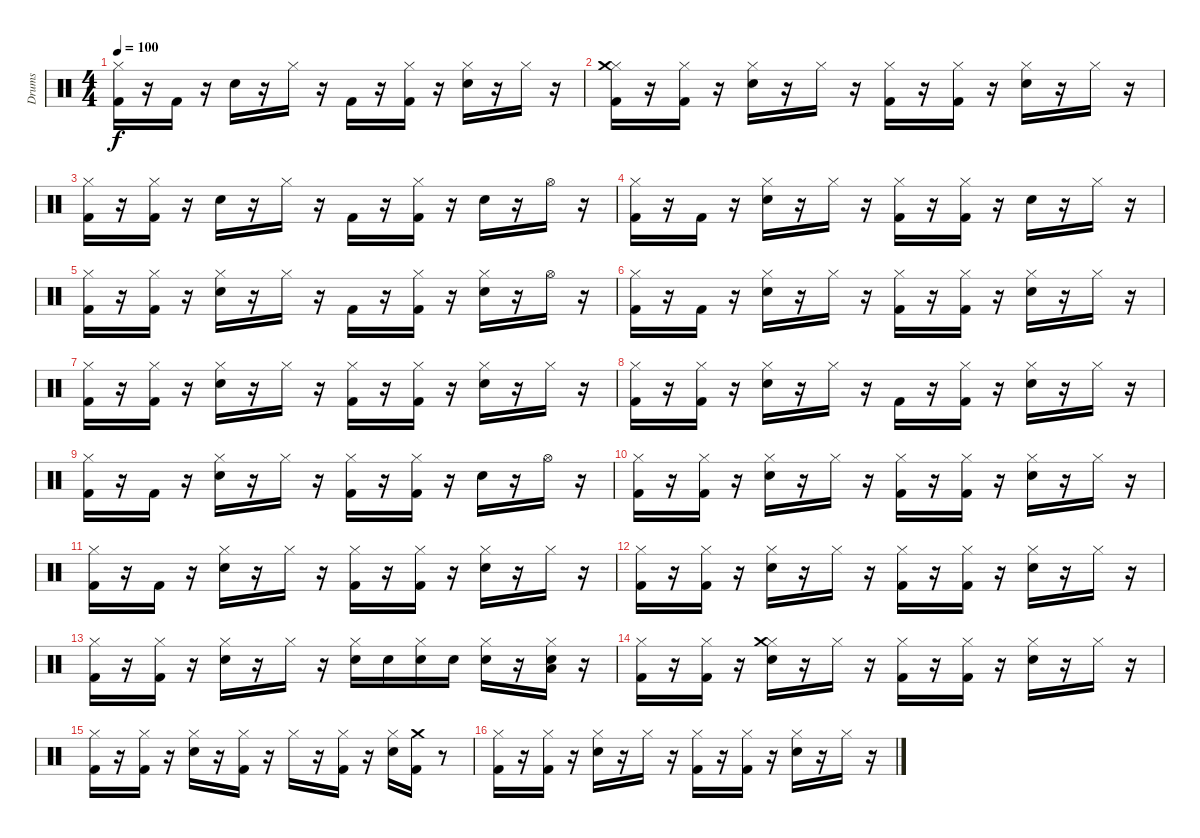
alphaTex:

\bracketExtendMode groupsimilarinstruments
\otherSystemsTrackNameOrientation horizontal
\track ("Drumkit" "Drums") {instrument percussion}
\staff {score}
\articulation defaults
\ts (4 4)
\tempo 100
\clef neutral
\ks c
("Kick (hit) 2" "Hi-Hat (closed)").16{dy f beam Down} r.16{beam Down} "Kick (hit) 2".16{beam Down} r.16{beam Down} "Snare (hit) 2".16{beam Down} r.16{beam Down} "Hi-Hat (closed)".16{beam Down} r.16{beam Down} "Kick (hit) 2".16{beam Down} r.16{beam Down} ("Kick (hit) 2" "Hi-Hat (closed)").16{beam Down} r.16{beam Down} ("Snare (hit) 2" "Hi-Hat (closed)").16{beam Down} r.16{beam Down} "Hi-Hat (closed)".16{beam Down} r.16{beam Down} |
("Kick (hit) 2" "Hi-Hat (closed)" "Crash medium (hit)").16{beam Down} r.16{beam Down} ("Kick (hit) 2" "Hi-Hat (closed)").16{beam Down} r.16{beam Down} ("Snare (hit) 2" "Hi-Hat (closed)").16{beam Down} r.16{beam Down} "Hi-Hat (closed)".16{beam Down} r.16{beam Down} ("Kick (hit) 2" "Hi-Hat (closed)").16{beam Down} r.16{beam Down} ("Kick (hit) 2" "Hi-Hat (closed)").16{beam Down} r.16{beam Down} ("Snare (hit) 2" "Hi-Hat (closed)").16{beam Down} r.16{beam Down} "Hi-Hat (closed)".16{beam Down} r.16{beam Down} |
("Kick (hit) 2" "Hi-Hat (closed)").16{beam Down} r.16{beam Down} ("Kick (hit) 2" "Hi-Hat (closed)").16{beam Down} r.16{beam Down} "Snare (hit) 2".16{beam Down} r.16{beam Down} "Hi-Hat (closed)".16{beam Down} r.16{beam Down} "Kick (hit) 2".16{beam Down} r.16{beam Down} ("Kick (hit) 2" "Hi-Hat (closed)").16{beam Down} r.16{beam Down} "Snare (hit) 2".16{beam Down} r.16{beam Down} "Hi-Hat (open)".16{beam Down} r.16{beam Down} |
("Kick (hit) 2" "Hi-Hat (closed)").16{beam Down} r.16{beam Down} "Kick (hit) 2".16{beam Down} r.16{beam Down} ("Snare (hit) 2" "Hi-Hat (closed)").16{beam Down} r.16{beam Down} "Hi-Hat (closed)".16{beam Down} r.16{beam Down} ("Kick (hit) 2" "Hi-Hat (closed)").16{beam Down} r.16{beam Down} ("Kick (hit) 2" "Hi-Hat (closed)").16{beam Down} r.16{beam Down} "Snare (hit) 2".16{beam Down} r.16{beam Down} "Hi-Hat (closed)".16{beam Down} r.16{beam Down} |
("Kick (hit) 2" "Hi-Hat (closed)").16{beam Down} r.16{beam Down} ("Kick (hit) 2" "Hi-Hat (closed)").16{beam Down} r.16{beam Down} ("Snare (hit) 2" "Hi-Hat (closed)").16{beam Down} r.16{beam Down} "Hi-Hat (closed)".16{beam Down} r.16{beam Down} "Kick (hit) 2".16{beam Down} r.16{beam Down} ("Kick (hit) 2" "Hi-Hat (closed)").16{beam Down} r.16{beam Down} ("Snare (hit) 2" "Hi-Hat (closed)").16{beam Down} r.16{beam Down} "Hi-Hat (open)".16{beam Down} r.16{beam Down} |
("Kick (hit) 2" "Hi-Hat (closed)").16{beam Down} r.16{beam Down} "Kick (hit) 2".16{beam Down} r.16{beam Down} ("Snare (hit) 2" "Hi-Hat (closed)").16{beam Down} r.16{beam Down} "Hi-Hat (closed)".16{beam Down} r.16{beam Down} ("Kick (hit) 2" "Hi-Hat (closed)").16{beam Down} r.16{beam Down} ("Kick (hit) 2" "Hi-Hat (closed)").16{beam Down} r.16{beam Down} ("Snare (hit) 2" "Hi-Hat (closed)").16{beam Down} r.16{beam Down} "Hi-Hat (closed)".16{beam Down} r.16{beam Down} |
("Kick (hit) 2" "Hi-Hat (closed)").16{beam Down} r.16{beam Down} ("Kick (hit) 2" "Hi-Hat (closed)").16{beam Down} r.16{beam Down} ("Snare (hit) 2" "Hi-Hat (closed)").16{beam Down} r.16{beam Down} "Hi-Hat (closed)".16{beam Down} r.16{beam Down} ("Kick (hit) 2" "Hi-Hat (closed)").16{beam Down} r.16{beam Down} ("Kick (hit) 2" "Hi-Hat (closed)").16{beam Down} r.16{beam Down} ("Snare (hit) 2" "Hi-Hat (closed)").16{beam Down} r.16{beam Down} "Hi-Hat (closed)".16{beam Down} r.16{beam Down} |
("Kick (hit) 2" "Hi-Hat (closed)").16{beam Down} r.16{beam Down} ("Kick (hit) 2" "Hi-Hat (closed)").16{beam Down} r.16{beam Down} ("Snare (hit) 2" "Hi-Hat (closed)").16{beam Down} r.16{beam Down} "Hi-Hat (closed)".16{beam Down} r.16{beam Down} "Kick (hit) 2".16{beam Down} r.16{beam Down} ("Kick (hit) 2" "Hi-Hat (closed)").16{beam Down} r.16{beam Down} ("Snare (hit) 2" "Hi-Hat (closed)").16{beam Down} r.16{beam Down} "Hi-Hat (closed)".16{beam Down} r.16{beam Down} |
("Kick (hit) 2" "Hi-Hat (closed)").16{beam Down} r.16{beam Down} "Kick (hit) 2".16{beam Down} r.16{beam Down} ("Snare (hit) 2" "Hi-Hat (closed)").16{beam Down} r.16{beam Down} "Hi-Hat (closed)".16{beam Down} r.16{beam Down} ("Kick (hit) 2" "Hi-Hat (closed)").16{beam Down} r.16{beam Down} ("Kick (hit) 2" "Hi-Hat (closed)").16{beam Down} r.16{beam Down} "Snare (hit) 2".16{beam Down} r.16{beam Down} "Hi-Hat (open)".16{beam Down} r.16{beam Down} |
("Kick (hit) 2" "Hi-Hat (closed)").16{beam Down} r.16{beam Down} ("Kick (hit) 2" "Hi-Hat (closed)").16{beam Down} r.16{beam Down} ("Snare (hit) 2" "Hi-Hat (closed)").16{beam Down} r.16{beam Down} "Hi-Hat (closed)".16{beam Down} r.16{beam Down} ("Kick (hit) 2" "Hi-Hat (closed)").16{beam Down} r.16{beam Down} ("Kick (hit) 2" "Hi-Hat (closed)").16{beam Down} r.16{beam Down} ("Snare (hit) 2" "Hi-Hat (closed)").16{beam Down} r.16{beam Down} "Hi-Hat (closed)".16{beam Down} r.16{beam Down} |
("Kick (hit) 2" "Hi-Hat (closed)").16{beam Down} r.16{beam Down} "Kick (hit) 2".16{beam Down} r.16{beam Down} ("Snare (hit) 2" "Hi-Hat (closed)").16{beam Down} r.16{beam Down} "Hi-Hat (closed)".16{beam Down} r.16{beam Down} ("Kick (hit) 2" "Hi-Hat (closed)").16{beam Down} r.16{beam Down} ("Kick (hit) 2" "Hi-Hat (closed)").16{beam Down} r.16{beam Down} ("Snare (hit) 2" "Hi-Hat (closed)").16{beam Down} r.16{beam Down} "Hi-Hat (closed)".16{beam Down} r.16{beam Down} |
("Kick (hit) 2" "Hi-Hat (closed)").16{beam Down} r.16{beam Down} ("Kick (hit) 2" "Hi-Hat (closed)").16{beam Down} r.16{beam Down} ("Snare (hit) 2" "Hi-Hat (closed)").16{beam Down} r.16{beam Down} "Hi-Hat (closed)".16{beam Down} r.16{beam Down} ("Kick (hit) 2" "Hi-Hat (closed)").16{beam Down} r.16{beam Down} ("Kick (hit) 2" "Hi-Hat (closed)").16{beam Down} r.16{beam Down} ("Snare (hit) 2" "Hi-Hat (closed)").16{beam Down} r.16{beam Down} "Hi-Hat (closed)".16{beam Down} r.16{beam Down} |
("Kick (hit) 2" "Hi-Hat (closed)").16{beam Down} r.16{beam Down} ("Kick (hit) 2" "Hi-Hat (closed)").16{beam Down} r.16{beam Down} ("Snare (hit) 2" "Hi-Hat (closed)").16{beam Down} r.16{beam Down} "Hi-Hat (closed)".16{beam Down} r.16{beam Down} ("Snare (hit) 2" "Hi-Hat (closed)").16{beam Down} "Snare (hit) 2".16{beam Down} ("Snare (hit) 2" "Hi-Hat (closed)").16{beam Down} "Snare (hit) 2".16{beam Down} ("Snare (hit) 2" "Hi-Hat (closed)").16{beam Down} r.16{beam Down} ("Snare (hit) 2" "Hi-Hat (closed)" "Low Tom (hit)").16{beam Down} r.16{beam Down} |
("Kick (hit) 2" "Hi-Hat (closed)").16{beam Down} r.16{beam Down} ("Kick (hit) 2" "Hi-Hat (closed)").16{beam Down} r.16{beam Down} ("Snare (hit) 2" "Hi-Hat (closed)" "Crash medium (hit)").16{beam Down} r.16{beam Down} "Hi-Hat (closed)".16{beam Down} r.16{beam Down} ("Kick (hit) 2" "Hi-Hat (closed)").16{beam Down} r.16{beam Down} ("Kick (hit) 2" "Hi-Hat (closed)").16{beam Down} r.16{beam Down} ("Snare (hit) 2" "Hi-Hat (closed)").16{beam Down} r.16{beam Down} "Hi-Hat (closed)".16{beam Down} r.16{beam Down} |
("Kick (hit) 2" "Hi-Hat (closed)").16{beam Down} r.16{beam Down} ("Kick (hit) 2" "Hi-Hat (closed)").16{beam Down} r.16{beam Down} ("Snare (hit) 2" "Hi-Hat (closed)").16{beam Down} r.16{beam Down} ("Kick (hit) 2" "Hi-Hat (closed)").16{beam Down} r.16{beam Down} "Hi-Hat (closed)".16{beam Down} r.16{beam Down} ("Kick (hit) 2" "Hi-Hat (closed)").16{beam Down} r.16{beam Down} ("Snare (hit) 2" "Hi-Hat (closed)").16{beam Down} ("Kick (hit) 2" "Crash medium (hit)").16{beam Down} r.8{beam Down} |
("Kick (hit) 2" "Hi-Hat (closed)").16{beam Down} r.16{beam Down} ("Kick (hit) 2" "Hi-Hat (closed)").16{beam Down} r.16{beam Down} ("Snare (hit) 2" "Hi-Hat (closed)").16{beam Down} r.16{beam Down} "Hi-Hat (closed)".16{beam Down} r.16{beam Down} ("Kick (hit) 2" "Hi-Hat (closed)").16{beam Down} r.16{beam Down} ("Kick (hit) 2" "Hi-Hat (closed)").16{beam Down} r.16{beam Down} ("Snare (hit) 2" "Hi-Hat (closed)").16{beam Down} r.16{beam Down} "Hi-Hat (closed)".16{beam Down} r.16{beam Down}
